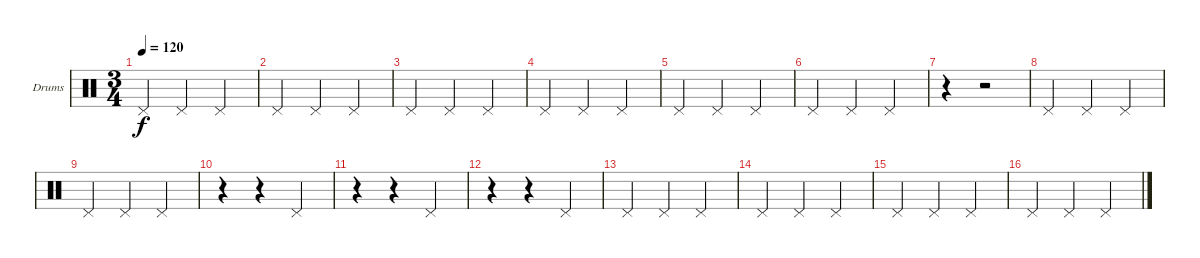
\bracketExtendMode groupsimilarinstruments
\firstSystemTrackNameOrientation horizontal
\otherSystemsTrackNameOrientation horizontal
\track ("Drumkit" "Drums") {instrument percussion}
\staff {score}
\articulation defaults
\ts (3 4)
\tempo 120
\clef neutral
\ks c "Pedal Hi-Hat (hit)".4{dy f} "Pedal Hi-Hat (hit)".4 "Pedal Hi-Hat (hit)".4
|
"Pedal Hi-Hat (hit)".4 "Pedal Hi-Hat (hit)".4 "Pedal Hi-Hat (hit)".4 |
"Pedal Hi-Hat (hit)".4 "Pedal Hi-Hat (hit)".4 "Pedal Hi-Hat (hit)".4 |
"Pedal Hi-Hat (hit)".4 "Pedal Hi-Hat (hit)".4 "Pedal Hi-Hat (hit)".4 |
"Pedal Hi-Hat (hit)".4 "Pedal Hi-Hat (hit)".4 "Pedal Hi-Hat (hit)".4 |
"Pedal Hi-Hat (hit)".4 "Pedal Hi-Hat (hit)".4 "Pedal Hi-Hat (hit)".4 |
r.4 r.2 |
"Pedal Hi-Hat (hit)".4 "Pedal Hi-Hat (hit)".4 "Pedal Hi-Hat (hit)".4 |
"Pedal Hi-Hat (hit)".4 "Pedal Hi-Hat (hit)".4 "Pedal Hi-Hat (hit)".4 |
r.4 r.4 "Pedal Hi-Hat (hit)".4 |
r.4 r.4 "Pedal Hi-Hat (hit)".4 |
r.4 r.4 "Pedal Hi-Hat (hit)".4 |
"Pedal Hi-Hat (hit)".4 "Pedal Hi-Hat (hit)".4 "Pedal Hi-Hat (hit)".4 |
"Pedal Hi-Hat (hit)".4 "Pedal Hi-Hat (hit)".4 "Pedal Hi-Hat (hit)".4 |
"Pedal Hi-Hat (hit)".4 "Pedal Hi-Hat (hit)".4 "Pedal Hi-Hat (hit)".4 |
"Pedal Hi-Hat (hit)".4 "Pedal Hi-Hat (hit)".4 "Pedal Hi-Hat (hit)".4
